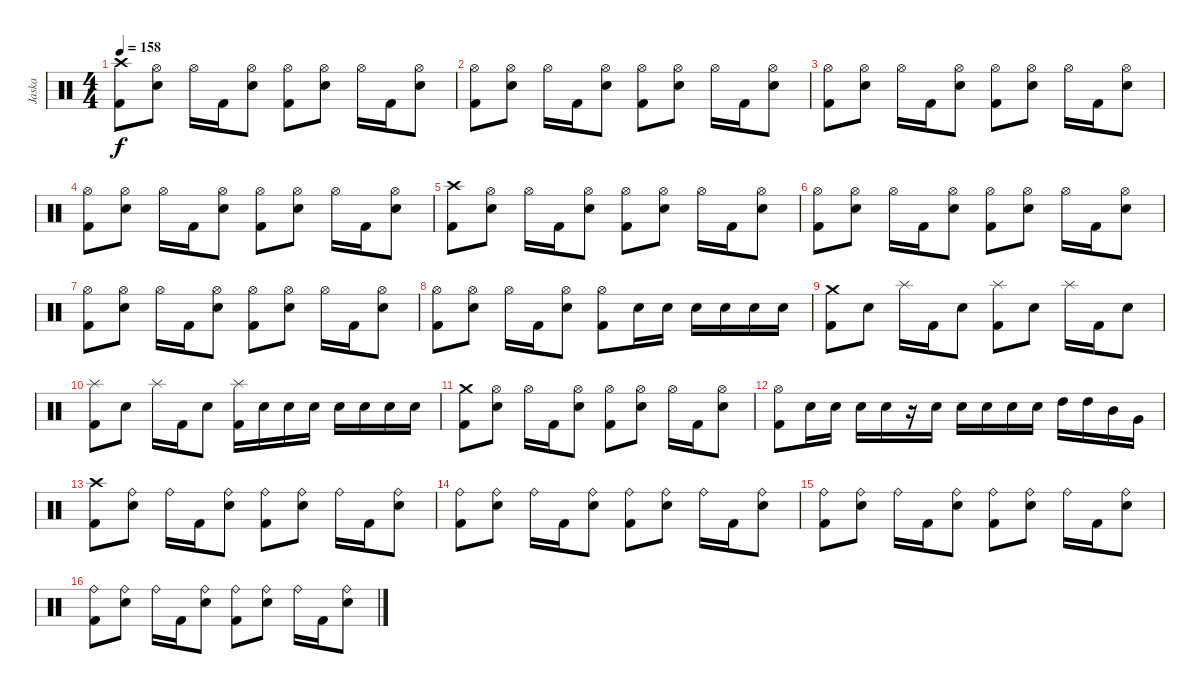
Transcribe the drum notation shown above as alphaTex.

\track ("Jaska" "Jaska") {instrument percussion}
\staff {score}
\articulation defaults
\ts (4 4)
\tempo 158
\clef neutral
\ks c
("Crash high (hit)" "Kick (hit) 2").8{dy f} ("Hi-Hat (open)" "Electric Snare (hit)").8 "Hi-Hat (open)".16 "Kick (hit) 2".16 ("Hi-Hat (open)" "Electric Snare (hit)").8 ("Hi-Hat (open)" "Kick (hit) 2").8 ("Hi-Hat (open)" "Electric Snare (hit)").8 "Hi-Hat (open)".16 "Kick (hit) 2".16 ("Hi-Hat (open)" "Electric Snare (hit)").8 |
("Hi-Hat (open)" "Kick (hit) 2").8 ("Hi-Hat (open)" "Electric Snare (hit)").8 "Hi-Hat (open)".16 "Kick (hit) 2".16 ("Hi-Hat (open)" "Electric Snare (hit)").8 ("Hi-Hat (open)" "Kick (hit) 2").8 ("Hi-Hat (open)" "Electric Snare (hit)").8 "Hi-Hat (open)".16 "Kick (hit) 2".16 ("Hi-Hat (open)" "Electric Snare (hit)").8 |
("Hi-Hat (open)" "Kick (hit) 2").8 ("Hi-Hat (open)" "Electric Snare (hit)").8 "Hi-Hat (open)".16 "Kick (hit) 2".16 ("Hi-Hat (open)" "Electric Snare (hit)").8 ("Hi-Hat (open)" "Kick (hit) 2").8 ("Hi-Hat (open)" "Electric Snare (hit)").8 "Hi-Hat (open)".16 "Kick (hit) 2".16 ("Hi-Hat (open)" "Electric Snare (hit)").8 |
("Hi-Hat (open)" "Kick (hit) 2").8 ("Hi-Hat (open)" "Electric Snare (hit)").8 "Hi-Hat (open)".16 "Kick (hit) 2".16 ("Hi-Hat (open)" "Electric Snare (hit)").8 ("Hi-Hat (open)" "Kick (hit) 2").8 ("Hi-Hat (open)" "Electric Snare (hit)").8 "Hi-Hat (open)".16 "Kick (hit) 2".16 ("Hi-Hat (open)" "Electric Snare (hit)").8 |
("Crash high (hit)" "Kick (hit) 2").8 ("Hi-Hat (open)" "Electric Snare (hit)").8 "Hi-Hat (open)".16 "Kick (hit) 2".16 ("Hi-Hat (open)" "Electric Snare (hit)").8 ("Hi-Hat (open)" "Kick (hit) 2").8 ("Hi-Hat (open)" "Electric Snare (hit)").8 "Hi-Hat (open)".16 "Kick (hit) 2".16 ("Hi-Hat (open)" "Electric Snare (hit)").8 |
("Hi-Hat (open)" "Kick (hit) 2").8 ("Hi-Hat (open)" "Electric Snare (hit)").8 "Hi-Hat (open)".16 "Kick (hit) 2".16 ("Hi-Hat (open)" "Electric Snare (hit)").8 ("Hi-Hat (open)" "Kick (hit) 2").8 ("Hi-Hat (open)" "Electric Snare (hit)").8 "Hi-Hat (open)".16 "Kick (hit) 2".16 ("Hi-Hat (open)" "Electric Snare (hit)").8 |
("Hi-Hat (open)" "Kick (hit) 2").8 ("Hi-Hat (open)" "Electric Snare (hit)").8 "Hi-Hat (open)".16 "Kick (hit) 2".16 ("Hi-Hat (open)" "Electric Snare (hit)").8 ("Hi-Hat (open)" "Kick (hit) 2").8 ("Hi-Hat (open)" "Electric Snare (hit)").8 "Hi-Hat (open)".16 "Kick (hit) 2".16 ("Hi-Hat (open)" "Electric Snare (hit)").8 |
("Hi-Hat (open)" "Kick (hit) 2").8 ("Hi-Hat (open)" "Electric Snare (hit)").8 "Hi-Hat (open)".16 "Kick (hit) 2".16 ("Hi-Hat (open)" "Electric Snare (hit)").8 ("Hi-Hat (open)" "Kick (hit) 2").8 "Electric Snare (hit)".16 "Electric Snare (hit)".16 "Electric Snare (hit)".16 "Electric Snare (hit)".16 "Electric Snare (hit)".16 "Electric Snare (hit)".16 |
("Crash medium (hit)" "Kick (hit) 2").8 "Electric Snare (hit)".8 "Splash (hit)".16 "Kick (hit) 2".16 "Electric Snare (hit)".8 ("Splash (hit)" "Kick (hit) 2").8 "Electric Snare (hit)".8 "Splash (hit)".16 "Kick (hit) 2".16 "Electric Snare (hit)".8 |
("Splash (hit)" "Kick (hit) 2").8 "Electric Snare (hit)".8 "Splash (hit)".16 "Kick (hit) 2".16 "Electric Snare (hit)".8 ("Splash (hit)" "Kick (hit) 2").16 "Electric Snare (hit)".16 "Electric Snare (hit)".16 "Electric Snare (hit)".16 "Electric Snare (hit)".16 "Electric Snare (hit)".16 "Electric Snare (hit)".16 "Electric Snare (hit)".16 |
("Crash medium (hit)" "Kick (hit) 2").8 ("Hi-Hat (open)" "Electric Snare (hit)").8 "Hi-Hat (open)".16 "Kick (hit) 2".16 ("Hi-Hat (open)" "Electric Snare (hit)").8 ("Hi-Hat (open)" "Kick (hit) 2").8 ("Hi-Hat (open)" "Electric Snare (hit)").8 "Hi-Hat (open)".16 "Kick (hit) 2".16 ("Hi-Hat (open)" "Electric Snare (hit)").8 |
("Hi-Hat (open)" "Kick (hit) 2").8 "Electric Snare (hit)".16 "Electric Snare (hit)".16 "Electric Snare (hit)".16 "Electric Snare (hit)".16 r.16 "Electric Snare (hit)".16 "Electric Snare (hit)".16 "Electric Snare (hit)".16 "Electric Snare (hit)".16 "Electric Snare (hit)".16 "High Tom (hit)".16{balance 0} "High Tom (hit)".16{balance 4} "Mid Tom (hit)".16{balance 7} "Very Low Tom (hit)".16{balance 16} |
("Crash high (hit)" "Kick (hit) 2").8{balance 8} ("Ride (bell)" "Electric Snare (hit)").8 "Ride (bell)".16 "Kick (hit) 2".16 ("Ride (bell)" "Electric Snare (hit)").8 ("Ride (bell)" "Kick (hit) 2").8 ("Ride (bell)" "Electric Snare (hit)").8 "Ride (bell)".16 "Kick (hit) 2".16 ("Ride (bell)" "Electric Snare (hit)").8 |
("Ride (bell)" "Kick (hit) 2").8 ("Ride (bell)" "Electric Snare (hit)").8 "Ride (bell)".16 "Kick (hit) 2".16 ("Ride (bell)" "Electric Snare (hit)").8 ("Ride (bell)" "Kick (hit) 2").8 ("Ride (bell)" "Electric Snare (hit)").8 "Ride (bell)".16 "Kick (hit) 2".16 ("Ride (bell)" "Electric Snare (hit)").8 |
("Ride (bell)" "Kick (hit) 2").8 ("Ride (bell)" "Electric Snare (hit)").8 "Ride (bell)".16 "Kick (hit) 2".16 ("Ride (bell)" "Electric Snare (hit)").8 ("Ride (bell)" "Kick (hit) 2").8 ("Ride (bell)" "Electric Snare (hit)").8 "Ride (bell)".16 "Kick (hit) 2".16 ("Ride (bell)" "Electric Snare (hit)").8 |
("Ride (bell)" "Kick (hit) 2").8 ("Ride (bell)" "Electric Snare (hit)").8 "Ride (bell)".16 "Kick (hit) 2".16 ("Ride (bell)" "Electric Snare (hit)").8 ("Ride (bell)" "Kick (hit) 2").8 ("Ride (bell)" "Electric Snare (hit)").8 "Ride (bell)".16 "Kick (hit) 2".16 ("Ride (bell)" "Electric Snare (hit)").8
